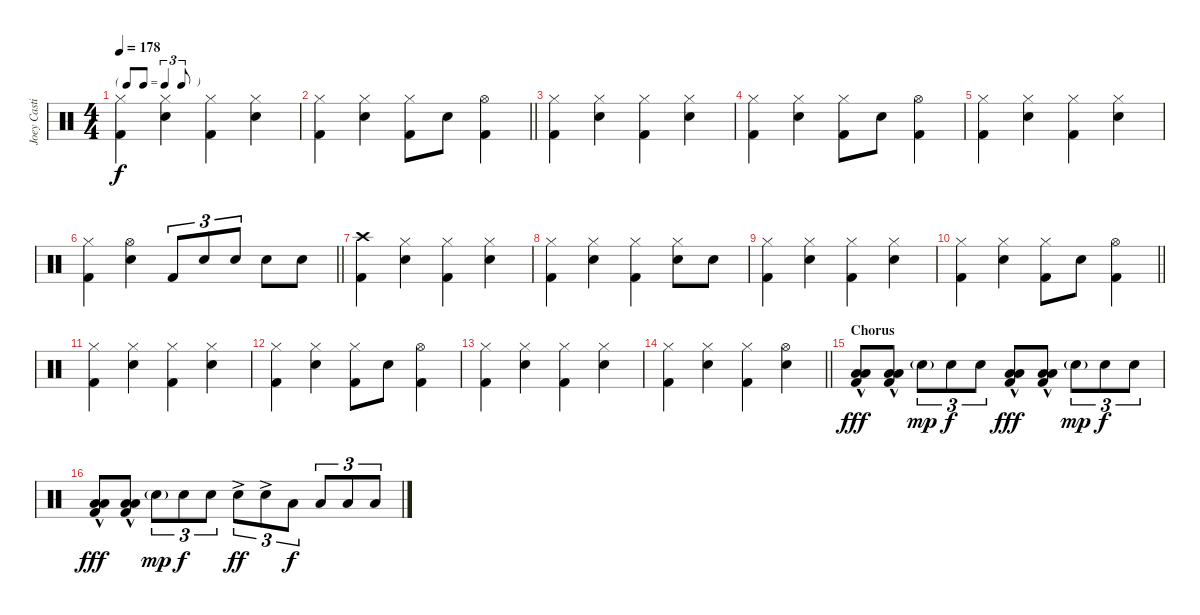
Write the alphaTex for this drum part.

\track ("Joey Castillo" "Joey Casti") {instrument percussion}
\staff {score}
\articulation defaults
\ts (4 4)
\tf triplet8th
\tempo 178
\clef neutral
\ks c
("Hi-Hat (closed)" "Kick (hit) 2").4{dy f} ("Hi-Hat (closed)" "Snare (hit) 2").4 ("Hi-Hat (closed)" "Kick (hit) 2").4 ("Hi-Hat (closed)" "Snare (hit) 2").4 |
\barLineRight lightlight
("Hi-Hat (closed)" "Kick (hit) 2").4 ("Hi-Hat (closed)" "Snare (hit) 2").4 ("Hi-Hat (closed)" "Kick (hit) 2").8 "Snare (hit) 2".8 ("Hi-Hat (open)" "Kick (hit) 2").4 |
("Hi-Hat (closed)" "Kick (hit) 2").4 ("Hi-Hat (closed)" "Snare (hit) 2").4 ("Hi-Hat (closed)" "Kick (hit) 2").4 ("Hi-Hat (closed)" "Snare (hit) 2").4 |
("Hi-Hat (closed)" "Kick (hit) 2").4 ("Hi-Hat (closed)" "Snare (hit) 2").4 ("Hi-Hat (closed)" "Kick (hit) 2").8 "Snare (hit) 2".8 ("Hi-Hat (open)" "Kick (hit) 2").4 |
("Hi-Hat (closed)" "Kick (hit) 2").4 ("Hi-Hat (closed)" "Snare (hit) 2").4 ("Hi-Hat (closed)" "Kick (hit) 2").4 ("Hi-Hat (closed)" "Snare (hit) 2").4 |
\barLineRight lightlight
("Hi-Hat (closed)" "Kick (hit) 2").4 ("Hi-Hat (open)" "Snare (hit) 2").4 "Kick (hit) 2".8{tu (3 2)} "Snare (hit) 2".8{tu (3 2)} "Snare (hit) 2".8{tu (3 2)} "Snare (hit) 2".8 "Snare (hit) 2".8 |
("Crash high (hit)" "Kick (hit) 2").4 ("Hi-Hat (closed)" "Snare (hit) 2").4 ("Hi-Hat (closed)" "Kick (hit) 2").4 ("Hi-Hat (closed)" "Snare (hit) 2").4 |
("Hi-Hat (closed)" "Kick (hit) 2").4 ("Hi-Hat (closed)" "Snare (hit) 2").4 ("Hi-Hat (closed)" "Kick (hit) 2").4 ("Hi-Hat (closed)" "Snare (hit) 2").8 "Snare (hit) 2".8 |
("Hi-Hat (closed)" "Kick (hit) 2").4 ("Hi-Hat (closed)" "Snare (hit) 2").4 ("Hi-Hat (closed)" "Kick (hit) 2").4 ("Hi-Hat (closed)" "Snare (hit) 2").4 |
\barLineRight lightlight
("Hi-Hat (closed)" "Kick (hit) 2").4 ("Hi-Hat (closed)" "Snare (hit) 2").4 ("Hi-Hat (closed)" "Kick (hit) 2").8 "Snare (hit) 2".8 ("Hi-Hat (open)" "Kick (hit) 2").4 |
("Hi-Hat (closed)" "Kick (hit) 2").4 ("Hi-Hat (closed)" "Snare (hit) 2").4 ("Hi-Hat (closed)" "Kick (hit) 2").4 ("Hi-Hat (closed)" "Snare (hit) 2").4 |
("Hi-Hat (closed)" "Kick (hit) 2").4 ("Hi-Hat (closed)" "Snare (hit) 2").4 ("Hi-Hat (closed)" "Kick (hit) 2").8 "Snare (hit) 2".8 ("Hi-Hat (open)" "Kick (hit) 2").4 |
("Hi-Hat (closed)" "Kick (hit) 2").4 ("Hi-Hat (closed)" "Snare (hit) 2").4 ("Hi-Hat (closed)" "Kick (hit) 2").4 ("Hi-Hat (closed)" "Snare (hit) 2").4 |
\barLineRight lightlight
("Hi-Hat (closed)" "Kick (hit) 2").4 ("Hi-Hat (closed)" "Snare (hit) 2").4 ("Hi-Hat (closed)" "Kick (hit) 2").4 ("Hi-Hat (open)" "Snare (hit) 2").4 |
\section ("" "Chorus")
("Low Tom (hit)" "Low Floor Tom (hit)" "Kick (hit) 2"{hac}).8{dy fff} ("Low Tom (hit)" "Low Floor Tom (hit)" "Kick (hit) 2"{hac}).8 "Snare (hit) 2"{g}.8{tu (3 2) dy mp} "Snare (hit) 2".8{tu (3 2) dy f} "Snare (hit) 2".8{tu (3 2)} ("Low Tom (hit)" "Low Floor Tom (hit)" "Kick (hit) 2"{hac}).8{dy fff} ("Low Tom (hit)" "Low Floor Tom (hit)" "Kick (hit) 2"{hac}).8 "Snare (hit) 2"{g}.8{tu (3 2) dy mp} "Snare (hit) 2".8{tu (3 2) dy f} "Snare (hit) 2".8{tu (3 2)} |
("Low Tom (hit)" "Low Floor Tom (hit)" "Kick (hit) 2"{hac}).8{dy fff} ("Low Tom (hit)" "Low Floor Tom (hit)" "Kick (hit) 2"{hac}).8 "Snare (hit) 2"{g}.8{tu (3 2) dy mp} "Snare (hit) 2".8{tu (3 2) dy f} "Snare (hit) 2".8{tu (3 2)} "Snare (hit) 2"{ac}.8{tu (3 2) dy ff} "Snare (hit) 2"{ac}.8{tu (3 2)} "Low Tom (hit)".8{tu (3 2) dy f} "Low Tom (hit)".8{tu (3 2)} "Low Tom (hit)".8{tu (3 2)} "Low Tom (hit)".8{tu (3 2)}
